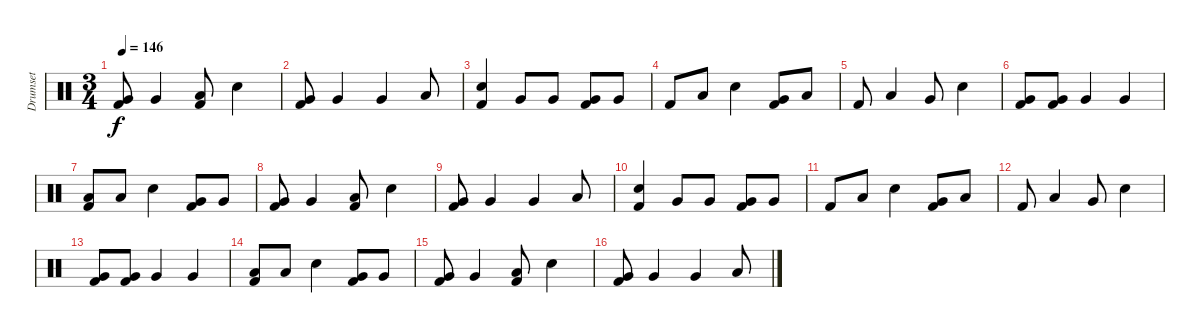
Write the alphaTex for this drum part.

\track ("Drumset" "Drumset") {instrument percussion}
\staff {score}
\articulation defaults
\ts (3 4)
\tempo 146
\clef neutral
\ks c
("Kick (hit) 2" "Very Low Tom (hit)").8{dy f} "Very Low Tom (hit)".4 ("Kick (hit) 2" "Low Tom (hit)").8 "Electric Snare (hit)".4 |
("Kick (hit) 2" "Very Low Tom (hit)").8 "Very Low Tom (hit)".4 "Very Low Tom (hit)".4 "Low Tom (hit)".8 |
("Kick (hit) 2" "Electric Snare (hit)").4 "Very Low Tom (hit)".8 "Very Low Tom (hit)".8 ("Kick (hit) 2" "Very Low Tom (hit)").8 "Very Low Tom (hit)".8 |
"Kick (hit) 2".8 "Low Tom (hit)".8 "Electric Snare (hit)".4 ("Kick (hit) 2" "Very Low Tom (hit)").8 "Low Tom (hit)".8 |
"Kick (hit) 2".8 "Low Tom (hit)".4 "Very Low Tom (hit)".8 "Electric Snare (hit)".4 |
("Kick (hit) 2" "Very Low Tom (hit)").8 ("Kick (hit) 2" "Very Low Tom (hit)").8 "Very Low Tom (hit)".4 "Very Low Tom (hit)".4 |
("Kick (hit) 2" "Low Tom (hit)").8 "Low Tom (hit)".8 "Electric Snare (hit)".4 ("Kick (hit) 2" "Very Low Tom (hit)").8 "Very Low Tom (hit)".8 |
("Kick (hit) 2" "Very Low Tom (hit)").8 "Very Low Tom (hit)".4 ("Kick (hit) 2" "Low Tom (hit)").8 "Electric Snare (hit)".4 |
("Kick (hit) 2" "Very Low Tom (hit)").8 "Very Low Tom (hit)".4 "Very Low Tom (hit)".4 "Low Tom (hit)".8 |
("Kick (hit) 2" "Electric Snare (hit)").4 "Very Low Tom (hit)".8 "Very Low Tom (hit)".8 ("Kick (hit) 2" "Very Low Tom (hit)").8 "Very Low Tom (hit)".8 |
"Kick (hit) 2".8 "Low Tom (hit)".8 "Electric Snare (hit)".4 ("Kick (hit) 2" "Very Low Tom (hit)").8 "Low Tom (hit)".8 |
"Kick (hit) 2".8 "Low Tom (hit)".4 "Very Low Tom (hit)".8 "Electric Snare (hit)".4 |
("Kick (hit) 2" "Very Low Tom (hit)").8 ("Kick (hit) 2" "Very Low Tom (hit)").8 "Very Low Tom (hit)".4 "Very Low Tom (hit)".4 |
("Kick (hit) 2" "Low Tom (hit)").8 "Low Tom (hit)".8 "Electric Snare (hit)".4 ("Kick (hit) 2" "Very Low Tom (hit)").8 "Very Low Tom (hit)".8 |
("Kick (hit) 2" "Very Low Tom (hit)").8 "Very Low Tom (hit)".4 ("Kick (hit) 2" "Low Tom (hit)").8 "Electric Snare (hit)".4 |
("Kick (hit) 2" "Very Low Tom (hit)").8 "Very Low Tom (hit)".4 "Very Low Tom (hit)".4 "Low Tom (hit)".8
